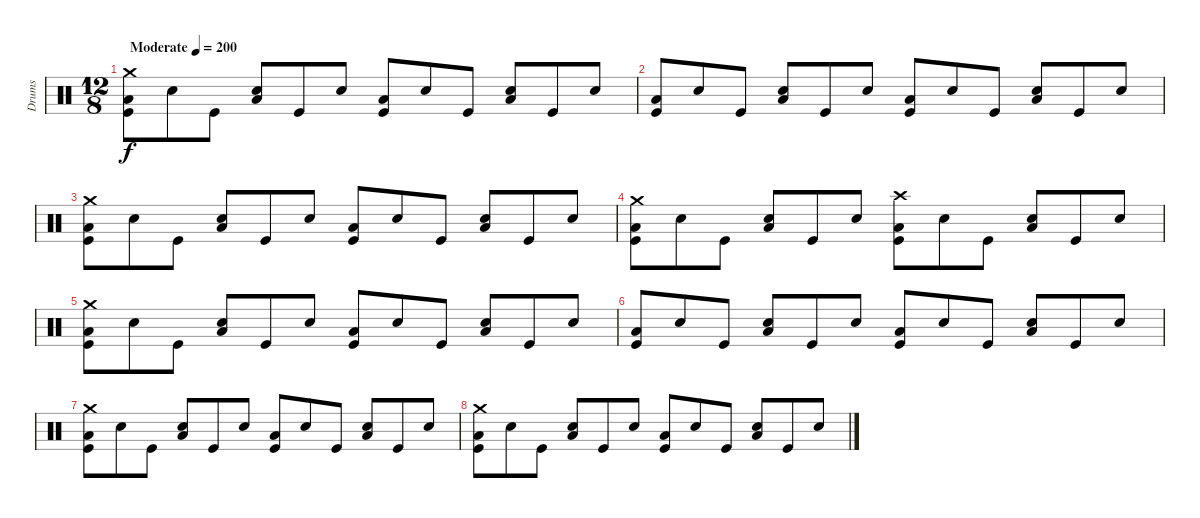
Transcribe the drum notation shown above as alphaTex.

\track ("Drums" "Drums") {instrument percussion}
\staff {score}
\articulation defaults
\ts (12 8)
\tempo (200 "Moderate")
\clef neutral
\ks c
("Crash medium (hit)" "Low Floor Tom (hit)" "Kick (hit)").8{dy f} "Snare (hit) 2".8 "Kick (hit)".8 ("Snare (hit) 2" "Low Floor Tom (hit)").8 "Kick (hit)".8 "Snare (hit) 2".8 ("Low Floor Tom (hit)" "Kick (hit)").8 "Snare (hit) 2".8 "Kick (hit)".8 ("Snare (hit) 2" "Low Floor Tom (hit)").8 "Kick (hit)".8 "Snare (hit) 2".8 |
("Low Floor Tom (hit)" "Kick (hit)").8 "Snare (hit) 2".8 "Kick (hit)".8 ("Snare (hit) 2" "Low Floor Tom (hit)").8 "Kick (hit)".8 "Snare (hit) 2".8 ("Low Floor Tom (hit)" "Kick (hit)").8 "Snare (hit) 2".8 "Kick (hit)".8 ("Snare (hit) 2" "Low Floor Tom (hit)").8 "Kick (hit)".8 "Snare (hit) 2".8 |
("Crash medium (hit)" "Low Floor Tom (hit)" "Kick (hit)").8 "Snare (hit) 2".8 "Kick (hit)".8 ("Snare (hit) 2" "Low Floor Tom (hit)").8 "Kick (hit)".8 "Snare (hit) 2".8 ("Low Floor Tom (hit)" "Kick (hit)").8 "Snare (hit) 2".8 "Kick (hit)".8 ("Snare (hit) 2" "Low Floor Tom (hit)").8 "Kick (hit)".8 "Snare (hit) 2".8 |
("Crash medium (hit)" "Low Floor Tom (hit)" "Kick (hit)").8 "Snare (hit) 2".8 "Kick (hit)".8 ("Snare (hit) 2" "Low Floor Tom (hit)").8 "Kick (hit)".8 "Snare (hit) 2".8 ("Crash high (hit)" "Low Floor Tom (hit)" "Kick (hit)").8 "Snare (hit) 2".8 "Kick (hit)".8 ("Snare (hit) 2" "Low Floor Tom (hit)").8 "Kick (hit)".8 "Snare (hit) 2".8 |
("Crash medium (hit)" "Low Floor Tom (hit)" "Kick (hit)").8 "Snare (hit) 2".8 "Kick (hit)".8 ("Snare (hit) 2" "Low Floor Tom (hit)").8 "Kick (hit)".8 "Snare (hit) 2".8 ("Low Floor Tom (hit)" "Kick (hit)").8 "Snare (hit) 2".8 "Kick (hit)".8 ("Snare (hit) 2" "Low Floor Tom (hit)").8 "Kick (hit)".8 "Snare (hit) 2".8 |
("Low Floor Tom (hit)" "Kick (hit)").8 "Snare (hit) 2".8 "Kick (hit)".8 ("Snare (hit) 2" "Low Floor Tom (hit)").8 "Kick (hit)".8 "Snare (hit) 2".8 ("Low Floor Tom (hit)" "Kick (hit)").8 "Snare (hit) 2".8 "Kick (hit)".8 ("Snare (hit) 2" "Low Floor Tom (hit)").8 "Kick (hit)".8 "Snare (hit) 2".8 |
("Crash medium (hit)" "Low Floor Tom (hit)" "Kick (hit)").8 "Snare (hit) 2".8 "Kick (hit)".8 ("Snare (hit) 2" "Low Floor Tom (hit)").8 "Kick (hit)".8 "Snare (hit) 2".8 ("Low Floor Tom (hit)" "Kick (hit)").8 "Snare (hit) 2".8 "Kick (hit)".8 ("Snare (hit) 2" "Low Floor Tom (hit)").8 "Kick (hit)".8 "Snare (hit) 2".8 |
("Crash medium (hit)" "Low Floor Tom (hit)" "Kick (hit)").8 "Snare (hit) 2".8 "Kick (hit)".8 ("Snare (hit) 2" "Low Floor Tom (hit)").8 "Kick (hit)".8 "Snare (hit) 2".8 ("Low Floor Tom (hit)" "Kick (hit)").8 "Snare (hit) 2".8 "Kick (hit)".8 ("Snare (hit) 2" "Low Floor Tom (hit)").8 "Kick (hit)".8 "Snare (hit) 2".8
